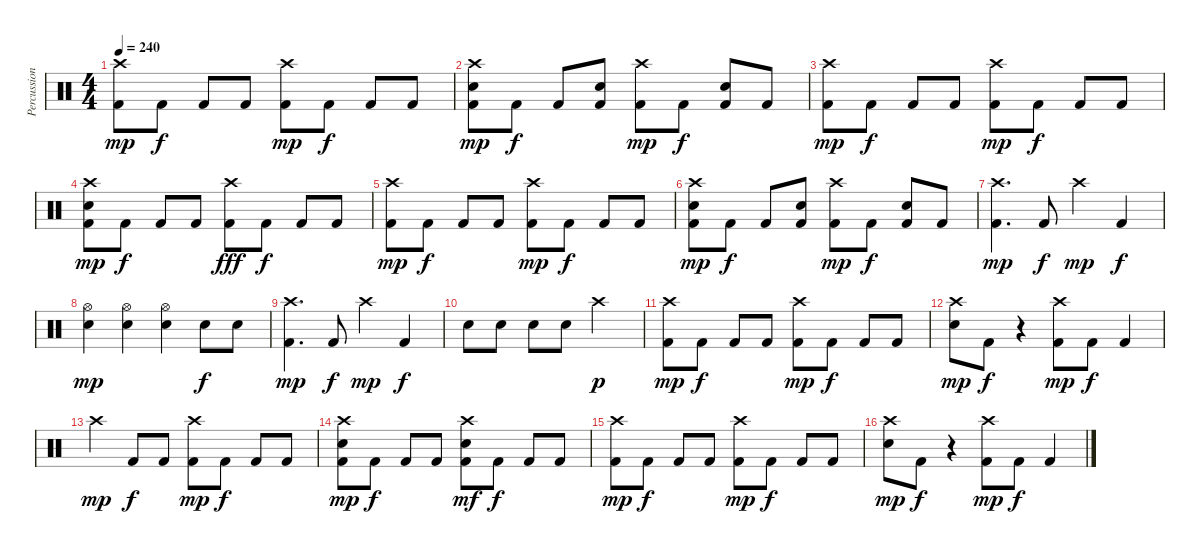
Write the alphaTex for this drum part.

\track ("Percussion" "Percussion") {instrument percussion}
\staff {score}
\articulation defaults
\ts (4 4)
\tempo 240
\clef neutral
\ks c
("Crash high (hit)" "Kick (hit) 2").8{dy mp} "Kick (hit) 2".8{dy f} "Kick (hit) 2".8 "Kick (hit) 2".8 ("Crash high (hit)" "Kick (hit) 2").8{dy mp} "Kick (hit) 2".8{dy f} "Kick (hit) 2".8 "Kick (hit) 2".8 |
("Crash high (hit)" "Electric Snare (hit)" "Kick (hit) 2").8{dy mp} "Kick (hit) 2".8{dy f} "Kick (hit) 2".8 ("Electric Snare (hit)" "Kick (hit) 2").8 ("Crash high (hit)" "Kick (hit) 2").8{dy mp} "Kick (hit) 2".8{dy f} ("Electric Snare (hit)" "Kick (hit) 2").8 "Kick (hit) 2".8 |
("Crash high (hit)" "Kick (hit) 2").8{dy mp} "Kick (hit) 2".8{dy f} "Kick (hit) 2".8 "Kick (hit) 2".8 ("Crash high (hit)" "Kick (hit) 2").8{dy mp} "Kick (hit) 2".8{dy f} "Kick (hit) 2".8 "Kick (hit) 2".8 |
("Crash high (hit)" "Electric Snare (hit)" "Kick (hit) 2").8{dy mp} "Kick (hit) 2".8{dy f} "Kick (hit) 2".8 "Kick (hit) 2".8 ("Crash high (hit)" "Kick (hit) 2").8{dy fff} "Kick (hit) 2".8{dy f} "Kick (hit) 2".8 "Kick (hit) 2".8 |
("Crash high (hit)" "Kick (hit) 2").8{dy mp} "Kick (hit) 2".8{dy f} "Kick (hit) 2".8 "Kick (hit) 2".8 ("Crash high (hit)" "Kick (hit) 2").8{dy mp} "Kick (hit) 2".8{dy f} "Kick (hit) 2".8 "Kick (hit) 2".8 |
("Crash high (hit)" "Electric Snare (hit)" "Kick (hit) 2").8{dy mp} "Kick (hit) 2".8{dy f} "Kick (hit) 2".8 ("Electric Snare (hit)" "Kick (hit) 2").8 ("Crash high (hit)" "Kick (hit) 2").8{dy mp} "Kick (hit) 2".8{dy f} ("Electric Snare (hit)" "Kick (hit) 2").8 "Kick (hit) 2".8 |
("Crash high (hit)" "Kick (hit) 2").4{d dy mp} "Kick (hit) 2".8{dy f} "Crash high (hit)".4{dy mp} "Kick (hit) 2".4{dy f} |
("Hi-Hat (open)" "Electric Snare (hit)").4{dy mp} ("Hi-Hat (open)" "Electric Snare (hit)").4 ("Hi-Hat (open)" "Electric Snare (hit)").4 "Electric Snare (hit)".8{dy f} "Electric Snare (hit)".8 |
("Crash high (hit)" "Kick (hit) 2").4{d dy mp} "Kick (hit) 2".8{dy f} "Crash high (hit)".4{dy mp} "Kick (hit) 2".4{dy f} |
"Electric Snare (hit)".8 "Electric Snare (hit)".8 "Electric Snare (hit)".8 "Electric Snare (hit)".8 "Crash high (hit)".2{dy p} |
("Crash high (hit)" "Kick (hit) 2").8{dy mp} "Kick (hit) 2".8{dy f} "Kick (hit) 2".8 "Kick (hit) 2".8 ("Crash high (hit)" "Kick (hit) 2").8{dy mp} "Kick (hit) 2".8{dy f} "Kick (hit) 2".8 "Kick (hit) 2".8 |
("Crash high (hit)" "Electric Snare (hit)").8{dy mp} "Kick (hit) 2".8{dy f} r.4 ("Crash high (hit)" "Kick (hit) 2").8{dy mp} "Kick (hit) 2".8{dy f} "Kick (hit) 2".4 |
"Crash high (hit)".4{dy mp} "Kick (hit) 2".8{dy f} "Kick (hit) 2".8 ("Crash high (hit)" "Kick (hit) 2").8{dy mp} "Kick (hit) 2".8{dy f} "Kick (hit) 2".8 "Kick (hit) 2".8 |
("Crash high (hit)" "Electric Snare (hit)" "Kick (hit) 2").8{dy mp} "Kick (hit) 2".8{dy f} "Kick (hit) 2".8 "Kick (hit) 2".8 ("Crash high (hit)" "Electric Snare (hit)" "Kick (hit) 2").8{dy mf} "Kick (hit) 2".8{dy f} "Kick (hit) 2".8 "Kick (hit) 2".8 |
("Crash high (hit)" "Kick (hit) 2").8{dy mp} "Kick (hit) 2".8{dy f} "Kick (hit) 2".8 "Kick (hit) 2".8 ("Crash high (hit)" "Kick (hit) 2").8{dy mp} "Kick (hit) 2".8{dy f} "Kick (hit) 2".8 "Kick (hit) 2".8 |
("Crash high (hit)" "Electric Snare (hit)").8{dy mp} "Kick (hit) 2".8{dy f} r.4 ("Crash high (hit)" "Kick (hit) 2").8{dy mp} "Kick (hit) 2".8{dy f} "Kick (hit) 2".4
